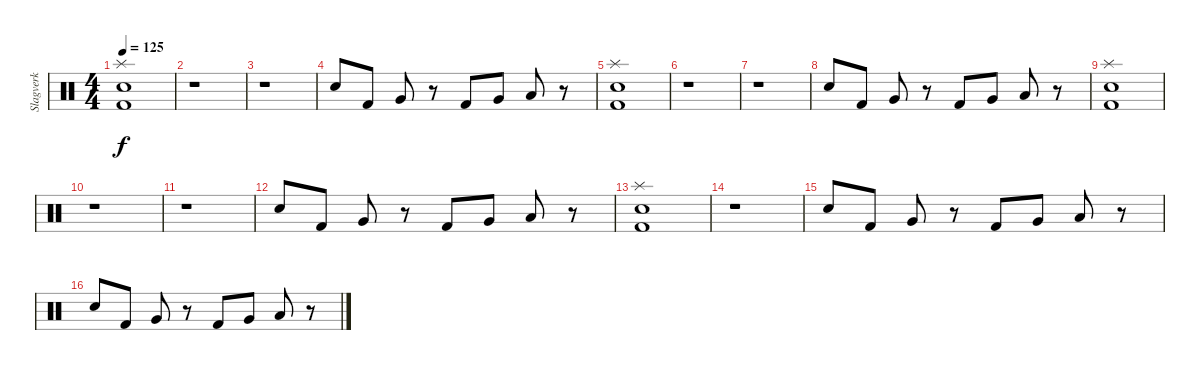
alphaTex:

\track ("Slagverk" "Slagverk") {instrument percussion}
\staff {score}
\articulation defaults
\ts (4 4)
\tempo 125
\clef neutral
\ks c
("Splash (hit)" "Electric Snare (hit)" "Kick (hit) 2").1{dy f} |
r.1 |
r.1 |
"Electric Snare (hit)".8 "Kick (hit) 2".8 "Very Low Tom (hit)".8 r.8 "Kick (hit) 2".8 "Very Low Tom (hit)".8 "Low Tom (hit)".8 r.8 |
("Splash (hit)" "Electric Snare (hit)" "Kick (hit) 2").1 |
r.1 |
r.1 |
"Electric Snare (hit)".8 "Kick (hit) 2".8 "Very Low Tom (hit)".8 r.8 "Kick (hit) 2".8 "Very Low Tom (hit)".8 "Low Tom (hit)".8 r.8 |
("Splash (hit)" "Electric Snare (hit)" "Kick (hit) 2").1 |
r.1 |
r.1 |
"Electric Snare (hit)".8 "Kick (hit) 2".8 "Very Low Tom (hit)".8 r.8 "Kick (hit) 2".8 "Very Low Tom (hit)".8 "Low Tom (hit)".8 r.8 |
("Splash (hit)" "Electric Snare (hit)" "Kick (hit) 2").1 |
r.1 |
"Electric Snare (hit)".8 "Kick (hit) 2".8 "Very Low Tom (hit)".8 r.8 "Kick (hit) 2".8 "Very Low Tom (hit)".8 "Low Tom (hit)".8 r.8 |
"Electric Snare (hit)".8 "Kick (hit) 2".8 "Very Low Tom (hit)".8 r.8 "Kick (hit) 2".8 "Very Low Tom (hit)".8 "Low Tom (hit)".8 r.8
